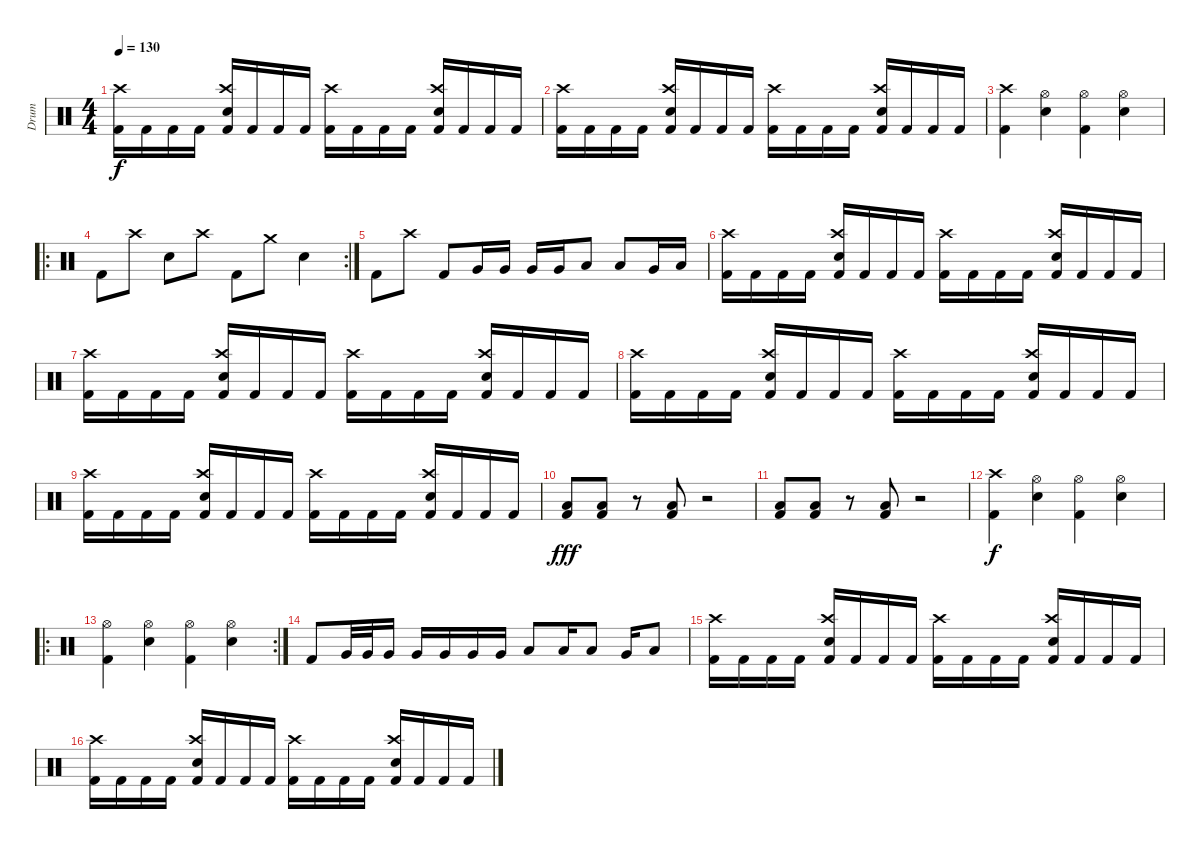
\track ("Drum" "Drum") {instrument percussion}
\staff {score}
\articulation defaults
\ts (4 4)
\tempo 130
\clef neutral
\ks c
("Kick (hit) 2" "Crash high (hit)").16{dy f} "Kick (hit) 2".16 "Kick (hit) 2".16 "Kick (hit) 2".16 ("Kick (hit) 2" "Electric Snare (hit)" "Crash high (hit)").16 "Kick (hit) 2".16 "Kick (hit) 2".16 "Kick (hit) 2".16 ("Kick (hit) 2" "Crash high (hit)").16 "Kick (hit) 2".16 "Kick (hit) 2".16 "Kick (hit) 2".16 ("Kick (hit) 2" "Electric Snare (hit)" "Crash high (hit)").16 "Kick (hit) 2".16 "Kick (hit) 2".16 "Kick (hit) 2".16 |
("Kick (hit) 2" "Crash high (hit)").16 "Kick (hit) 2".16 "Kick (hit) 2".16 "Kick (hit) 2".16 ("Kick (hit) 2" "Electric Snare (hit)" "Crash high (hit)").16 "Kick (hit) 2".16 "Kick (hit) 2".16 "Kick (hit) 2".16 ("Kick (hit) 2" "Crash high (hit)").16 "Kick (hit) 2".16 "Kick (hit) 2".16 "Kick (hit) 2".16 ("Kick (hit) 2" "Electric Snare (hit)" "Crash high (hit)").16 "Kick (hit) 2".16 "Kick (hit) 2".16 "Kick (hit) 2".16 |
("Kick (hit) 2" "Crash high (hit)").4 ("Electric Snare (hit)" "Hi-Hat (open)").4 ("Kick (hit) 2" "Hi-Hat (open)").4 ("Electric Snare (hit)" "Hi-Hat (open)").4 |
\ro
\rc 2 "Kick (hit) 2".8 "Crash high (hit)".8 "Electric Snare (hit)".8 "Crash high (hit)".8 "Kick (hit) 2".8 "Crash medium (hit)".8 "Electric Snare (hit)".4
|
"Kick (hit) 2".8 "Crash high (hit)".8 "Kick (hit) 2".8 "Very Low Tom (hit)".16 "Very Low Tom (hit)".16 "Very Low Tom (hit)".16 "Very Low Tom (hit)".16 "Low Tom (hit)".8 "Low Tom (hit)".8 "Very Low Tom (hit)".16 "Low Floor Tom (hit)".16 |
("Kick (hit) 2" "Crash high (hit)").16 "Kick (hit) 2".16 "Kick (hit) 2".16 "Kick (hit) 2".16 ("Kick (hit) 2" "Electric Snare (hit)" "Crash high (hit)").16 "Kick (hit) 2".16 "Kick (hit) 2".16 "Kick (hit) 2".16 ("Kick (hit) 2" "Crash high (hit)").16 "Kick (hit) 2".16 "Kick (hit) 2".16 "Kick (hit) 2".16 ("Kick (hit) 2" "Electric Snare (hit)" "Crash high (hit)").16 "Kick (hit) 2".16 "Kick (hit) 2".16 "Kick (hit) 2".16 |
("Kick (hit) 2" "Crash high (hit)").16 "Kick (hit) 2".16 "Kick (hit) 2".16 "Kick (hit) 2".16 ("Kick (hit) 2" "Electric Snare (hit)" "Crash high (hit)").16 "Kick (hit) 2".16 "Kick (hit) 2".16 "Kick (hit) 2".16 ("Kick (hit) 2" "Crash high (hit)").16 "Kick (hit) 2".16 "Kick (hit) 2".16 "Kick (hit) 2".16 ("Kick (hit) 2" "Electric Snare (hit)" "Crash high (hit)").16 "Kick (hit) 2".16 "Kick (hit) 2".16 "Kick (hit) 2".16 |
("Kick (hit) 2" "Crash high (hit)").16 "Kick (hit) 2".16 "Kick (hit) 2".16 "Kick (hit) 2".16 ("Kick (hit) 2" "Electric Snare (hit)" "Crash high (hit)").16 "Kick (hit) 2".16 "Kick (hit) 2".16 "Kick (hit) 2".16 ("Kick (hit) 2" "Crash high (hit)").16 "Kick (hit) 2".16 "Kick (hit) 2".16 "Kick (hit) 2".16 ("Kick (hit) 2" "Electric Snare (hit)" "Crash high (hit)").16 "Kick (hit) 2".16 "Kick (hit) 2".16 "Kick (hit) 2".16 |
("Kick (hit) 2" "Crash high (hit)").16 "Kick (hit) 2".16 "Kick (hit) 2".16 "Kick (hit) 2".16 ("Kick (hit) 2" "Electric Snare (hit)" "Crash high (hit)").16 "Kick (hit) 2".16 "Kick (hit) 2".16 "Kick (hit) 2".16 ("Kick (hit) 2" "Crash high (hit)").16 "Kick (hit) 2".16 "Kick (hit) 2".16 "Kick (hit) 2".16 ("Kick (hit) 2" "Electric Snare (hit)" "Crash high (hit)").16 "Kick (hit) 2".16 "Kick (hit) 2".16 "Kick (hit) 2".16 |
("Kick (hit) 2" "Low Floor Tom (hit)").8{dy fff} ("Kick (hit) 2" "Low Floor Tom (hit)").8 r.8 ("Kick (hit) 2" "Low Floor Tom (hit)").8 r.2 |
("Kick (hit) 2" "Low Floor Tom (hit)").8 ("Kick (hit) 2" "Low Floor Tom (hit)").8 r.8 ("Kick (hit) 2" "Low Floor Tom (hit)").8 r.2 |
("Kick (hit) 2" "Crash high (hit)").4{dy f} ("Electric Snare (hit)" "Hi-Hat (open)").4 ("Kick (hit) 2" "Hi-Hat (open)").4 ("Electric Snare (hit)" "Hi-Hat (open)").4 |
\ro
\rc 2
("Kick (hit) 2" "Hi-Hat (open)").4 ("Electric Snare (hit)" "Hi-Hat (open)").4 ("Kick (hit) 2" "Hi-Hat (open)").4 ("Electric Snare (hit)" "Hi-Hat (open)").4 |
"Kick (hit) 2".8 "Very Low Tom (hit)".32 "Very Low Tom (hit)".32 "Very Low Tom (hit)".16 "Very Low Tom (hit)".16 "Very Low Tom (hit)".16 "Very Low Tom (hit)".16 "Very Low Tom (hit)".16 "Low Tom (hit)".8 "Low Tom (hit)".16 "Low Tom (hit)".8 "Very Low Tom (hit)".16 "Low Floor Tom (hit)".8 |
("Kick (hit) 2" "Crash high (hit)").16 "Kick (hit) 2".16 "Kick (hit) 2".16 "Kick (hit) 2".16 ("Kick (hit) 2" "Electric Snare (hit)" "Crash high (hit)").16 "Kick (hit) 2".16 "Kick (hit) 2".16 "Kick (hit) 2".16 ("Kick (hit) 2" "Crash high (hit)").16 "Kick (hit) 2".16 "Kick (hit) 2".16 "Kick (hit) 2".16 ("Kick (hit) 2" "Electric Snare (hit)" "Crash high (hit)").16 "Kick (hit) 2".16 "Kick (hit) 2".16 "Kick (hit) 2".16 |
("Kick (hit) 2" "Crash high (hit)").16 "Kick (hit) 2".16 "Kick (hit) 2".16 "Kick (hit) 2".16 ("Kick (hit) 2" "Electric Snare (hit)" "Crash high (hit)").16 "Kick (hit) 2".16 "Kick (hit) 2".16 "Kick (hit) 2".16 ("Kick (hit) 2" "Crash high (hit)").16 "Kick (hit) 2".16 "Kick (hit) 2".16 "Kick (hit) 2".16 ("Kick (hit) 2" "Electric Snare (hit)" "Crash high (hit)").16 "Kick (hit) 2".16 "Kick (hit) 2".16 "Kick (hit) 2".16
